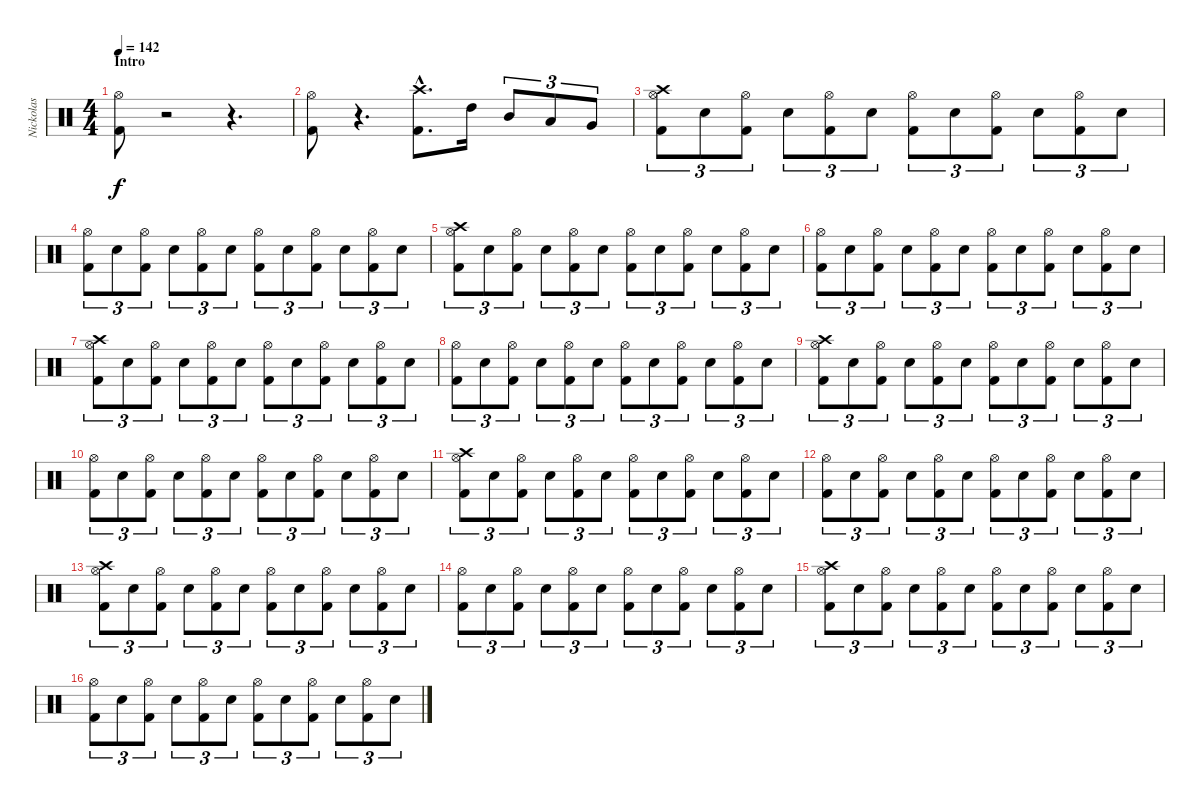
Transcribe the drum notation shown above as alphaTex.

\track ("Nickolas " "Nickolas ") {instrument percussion}
\staff {score}
\articulation defaults
\ts (4 4)
\section ("" "Intro")
\tempo 142
\clef neutral
\ks c
("Hi-Hat (open)" "Kick (hit) 2").8{dy f} r.2 r.4{d} |
("Hi-Hat (open)" "Kick (hit) 2").8 r.4{d} ("Kick (hit) 2"{hac} "Crash high (hit)"{hac}).8{d} "High Tom (hit)".16 "Mid Tom (hit)".8{tu (3 2)} "Low Tom (hit)".8{tu (3 2)} "Very Low Tom (hit)".8{tu (3 2)} |
("Kick (hit) 2" "Crash high (hit)" "Hi-Hat (open)").8{tu (3 2)} "Snare (hit) 2".8{tu (3 2)} ("Kick (hit) 2" "Hi-Hat (open)").8{tu (3 2)} "Snare (hit) 2".8{tu (3 2)} ("Kick (hit) 2" "Hi-Hat (open)").8{tu (3 2)} "Snare (hit) 2".8{tu (3 2)} ("Kick (hit) 2" "Hi-Hat (open)").8{tu (3 2)} "Snare (hit) 2".8{tu (3 2)} ("Kick (hit) 2" "Hi-Hat (open)").8{tu (3 2)} "Snare (hit) 2".8{tu (3 2)} ("Kick (hit) 2" "Hi-Hat (open)").8{tu (3 2)} "Snare (hit) 2".8{tu (3 2)} |
("Kick (hit) 2" "Hi-Hat (open)").8{tu (3 2)} "Snare (hit) 2".8{tu (3 2)} ("Kick (hit) 2" "Hi-Hat (open)").8{tu (3 2)} "Snare (hit) 2".8{tu (3 2)} ("Kick (hit) 2" "Hi-Hat (open)").8{tu (3 2)} "Snare (hit) 2".8{tu (3 2)} ("Kick (hit) 2" "Hi-Hat (open)").8{tu (3 2)} "Snare (hit) 2".8{tu (3 2)} ("Kick (hit) 2" "Hi-Hat (open)").8{tu (3 2)} "Snare (hit) 2".8{tu (3 2)} ("Kick (hit) 2" "Hi-Hat (open)").8{tu (3 2)} "Snare (hit) 2".8{tu (3 2)} |
("Kick (hit) 2" "Crash high (hit)" "Hi-Hat (open)").8{tu (3 2)} "Snare (hit) 2".8{tu (3 2)} ("Kick (hit) 2" "Hi-Hat (open)").8{tu (3 2)} "Snare (hit) 2".8{tu (3 2)} ("Kick (hit) 2" "Hi-Hat (open)").8{tu (3 2)} "Snare (hit) 2".8{tu (3 2)} ("Kick (hit) 2" "Hi-Hat (open)").8{tu (3 2)} "Snare (hit) 2".8{tu (3 2)} ("Kick (hit) 2" "Hi-Hat (open)").8{tu (3 2)} "Snare (hit) 2".8{tu (3 2)} ("Kick (hit) 2" "Hi-Hat (open)").8{tu (3 2)} "Snare (hit) 2".8{tu (3 2)} |
("Kick (hit) 2" "Hi-Hat (open)").8{tu (3 2)} "Snare (hit) 2".8{tu (3 2)} ("Kick (hit) 2" "Hi-Hat (open)").8{tu (3 2)} "Snare (hit) 2".8{tu (3 2)} ("Kick (hit) 2" "Hi-Hat (open)").8{tu (3 2)} "Snare (hit) 2".8{tu (3 2)} ("Kick (hit) 2" "Hi-Hat (open)").8{tu (3 2)} "Snare (hit) 2".8{tu (3 2)} ("Kick (hit) 2" "Hi-Hat (open)").8{tu (3 2)} "Snare (hit) 2".8{tu (3 2)} ("Kick (hit) 2" "Hi-Hat (open)").8{tu (3 2)} "Snare (hit) 2".8{tu (3 2)} |
("Kick (hit) 2" "Crash high (hit)" "Hi-Hat (open)").8{tu (3 2)} "Snare (hit) 2".8{tu (3 2)} ("Kick (hit) 2" "Hi-Hat (open)").8{tu (3 2)} "Snare (hit) 2".8{tu (3 2)} ("Kick (hit) 2" "Hi-Hat (open)").8{tu (3 2)} "Snare (hit) 2".8{tu (3 2)} ("Kick (hit) 2" "Hi-Hat (open)").8{tu (3 2)} "Snare (hit) 2".8{tu (3 2)} ("Kick (hit) 2" "Hi-Hat (open)").8{tu (3 2)} "Snare (hit) 2".8{tu (3 2)} ("Kick (hit) 2" "Hi-Hat (open)").8{tu (3 2)} "Snare (hit) 2".8{tu (3 2)} |
("Kick (hit) 2" "Hi-Hat (open)").8{tu (3 2)} "Snare (hit) 2".8{tu (3 2)} ("Kick (hit) 2" "Hi-Hat (open)").8{tu (3 2)} "Snare (hit) 2".8{tu (3 2)} ("Kick (hit) 2" "Hi-Hat (open)").8{tu (3 2)} "Snare (hit) 2".8{tu (3 2)} ("Kick (hit) 2" "Hi-Hat (open)").8{tu (3 2)} "Snare (hit) 2".8{tu (3 2)} ("Kick (hit) 2" "Hi-Hat (open)").8{tu (3 2)} "Snare (hit) 2".8{tu (3 2)} ("Kick (hit) 2" "Hi-Hat (open)").8{tu (3 2)} "Snare (hit) 2".8{tu (3 2)} |
("Kick (hit) 2" "Crash high (hit)" "Hi-Hat (open)").8{tu (3 2)} "Snare (hit) 2".8{tu (3 2)} ("Kick (hit) 2" "Hi-Hat (open)").8{tu (3 2)} "Snare (hit) 2".8{tu (3 2)} ("Kick (hit) 2" "Hi-Hat (open)").8{tu (3 2)} "Snare (hit) 2".8{tu (3 2)} ("Kick (hit) 2" "Hi-Hat (open)").8{tu (3 2)} "Snare (hit) 2".8{tu (3 2)} ("Kick (hit) 2" "Hi-Hat (open)").8{tu (3 2)} "Snare (hit) 2".8{tu (3 2)} ("Kick (hit) 2" "Hi-Hat (open)").8{tu (3 2)} "Snare (hit) 2".8{tu (3 2)} |
("Kick (hit) 2" "Hi-Hat (open)").8{tu (3 2)} "Snare (hit) 2".8{tu (3 2)} ("Kick (hit) 2" "Hi-Hat (open)").8{tu (3 2)} "Snare (hit) 2".8{tu (3 2)} ("Kick (hit) 2" "Hi-Hat (open)").8{tu (3 2)} "Snare (hit) 2".8{tu (3 2)} ("Kick (hit) 2" "Hi-Hat (open)").8{tu (3 2)} "Snare (hit) 2".8{tu (3 2)} ("Kick (hit) 2" "Hi-Hat (open)").8{tu (3 2)} "Snare (hit) 2".8{tu (3 2)} ("Kick (hit) 2" "Hi-Hat (open)").8{tu (3 2)} "Snare (hit) 2".8{tu (3 2)} |
("Kick (hit) 2" "Crash high (hit)" "Hi-Hat (open)").8{tu (3 2)} "Snare (hit) 2".8{tu (3 2)} ("Kick (hit) 2" "Hi-Hat (open)").8{tu (3 2)} "Snare (hit) 2".8{tu (3 2)} ("Kick (hit) 2" "Hi-Hat (open)").8{tu (3 2)} "Snare (hit) 2".8{tu (3 2)} ("Kick (hit) 2" "Hi-Hat (open)").8{tu (3 2)} "Snare (hit) 2".8{tu (3 2)} ("Kick (hit) 2" "Hi-Hat (open)").8{tu (3 2)} "Snare (hit) 2".8{tu (3 2)} ("Kick (hit) 2" "Hi-Hat (open)").8{tu (3 2)} "Snare (hit) 2".8{tu (3 2)} |
("Kick (hit) 2" "Hi-Hat (open)").8{tu (3 2)} "Snare (hit) 2".8{tu (3 2)} ("Kick (hit) 2" "Hi-Hat (open)").8{tu (3 2)} "Snare (hit) 2".8{tu (3 2)} ("Kick (hit) 2" "Hi-Hat (open)").8{tu (3 2)} "Snare (hit) 2".8{tu (3 2)} ("Kick (hit) 2" "Hi-Hat (open)").8{tu (3 2)} "Snare (hit) 2".8{tu (3 2)} ("Kick (hit) 2" "Hi-Hat (open)").8{tu (3 2)} "Snare (hit) 2".8{tu (3 2)} ("Kick (hit) 2" "Hi-Hat (open)").8{tu (3 2)} "Snare (hit) 2".8{tu (3 2)} |
("Kick (hit) 2" "Crash high (hit)" "Hi-Hat (open)").8{tu (3 2)} "Snare (hit) 2".8{tu (3 2)} ("Kick (hit) 2" "Hi-Hat (open)").8{tu (3 2)} "Snare (hit) 2".8{tu (3 2)} ("Kick (hit) 2" "Hi-Hat (open)").8{tu (3 2)} "Snare (hit) 2".8{tu (3 2)} ("Kick (hit) 2" "Hi-Hat (open)").8{tu (3 2)} "Snare (hit) 2".8{tu (3 2)} ("Kick (hit) 2" "Hi-Hat (open)").8{tu (3 2)} "Snare (hit) 2".8{tu (3 2)} ("Kick (hit) 2" "Hi-Hat (open)").8{tu (3 2)} "Snare (hit) 2".8{tu (3 2)} |
("Kick (hit) 2" "Hi-Hat (open)").8{tu (3 2)} "Snare (hit) 2".8{tu (3 2)} ("Kick (hit) 2" "Hi-Hat (open)").8{tu (3 2)} "Snare (hit) 2".8{tu (3 2)} ("Kick (hit) 2" "Hi-Hat (open)").8{tu (3 2)} "Snare (hit) 2".8{tu (3 2)} ("Kick (hit) 2" "Hi-Hat (open)").8{tu (3 2)} "Snare (hit) 2".8{tu (3 2)} ("Kick (hit) 2" "Hi-Hat (open)").8{tu (3 2)} "Snare (hit) 2".8{tu (3 2)} ("Kick (hit) 2" "Hi-Hat (open)").8{tu (3 2)} "Snare (hit) 2".8{tu (3 2)} |
("Kick (hit) 2" "Crash high (hit)" "Hi-Hat (open)").8{tu (3 2)} "Snare (hit) 2".8{tu (3 2)} ("Kick (hit) 2" "Hi-Hat (open)").8{tu (3 2)} "Snare (hit) 2".8{tu (3 2)} ("Kick (hit) 2" "Hi-Hat (open)").8{tu (3 2)} "Snare (hit) 2".8{tu (3 2)} ("Kick (hit) 2" "Hi-Hat (open)").8{tu (3 2)} "Snare (hit) 2".8{tu (3 2)} ("Kick (hit) 2" "Hi-Hat (open)").8{tu (3 2)} "Snare (hit) 2".8{tu (3 2)} ("Kick (hit) 2" "Hi-Hat (open)").8{tu (3 2)} "Snare (hit) 2".8{tu (3 2)} |
("Kick (hit) 2" "Hi-Hat (open)").8{tu (3 2)} "Snare (hit) 2".8{tu (3 2)} ("Kick (hit) 2" "Hi-Hat (open)").8{tu (3 2)} "Snare (hit) 2".8{tu (3 2)} ("Kick (hit) 2" "Hi-Hat (open)").8{tu (3 2)} "Snare (hit) 2".8{tu (3 2)} ("Kick (hit) 2" "Hi-Hat (open)").8{tu (3 2)} "Snare (hit) 2".8{tu (3 2)} ("Kick (hit) 2" "Hi-Hat (open)").8{tu (3 2)} "Snare (hit) 2".8{tu (3 2)} ("Kick (hit) 2" "Hi-Hat (open)").8{tu (3 2)} "Snare (hit) 2".8{tu (3 2)}
